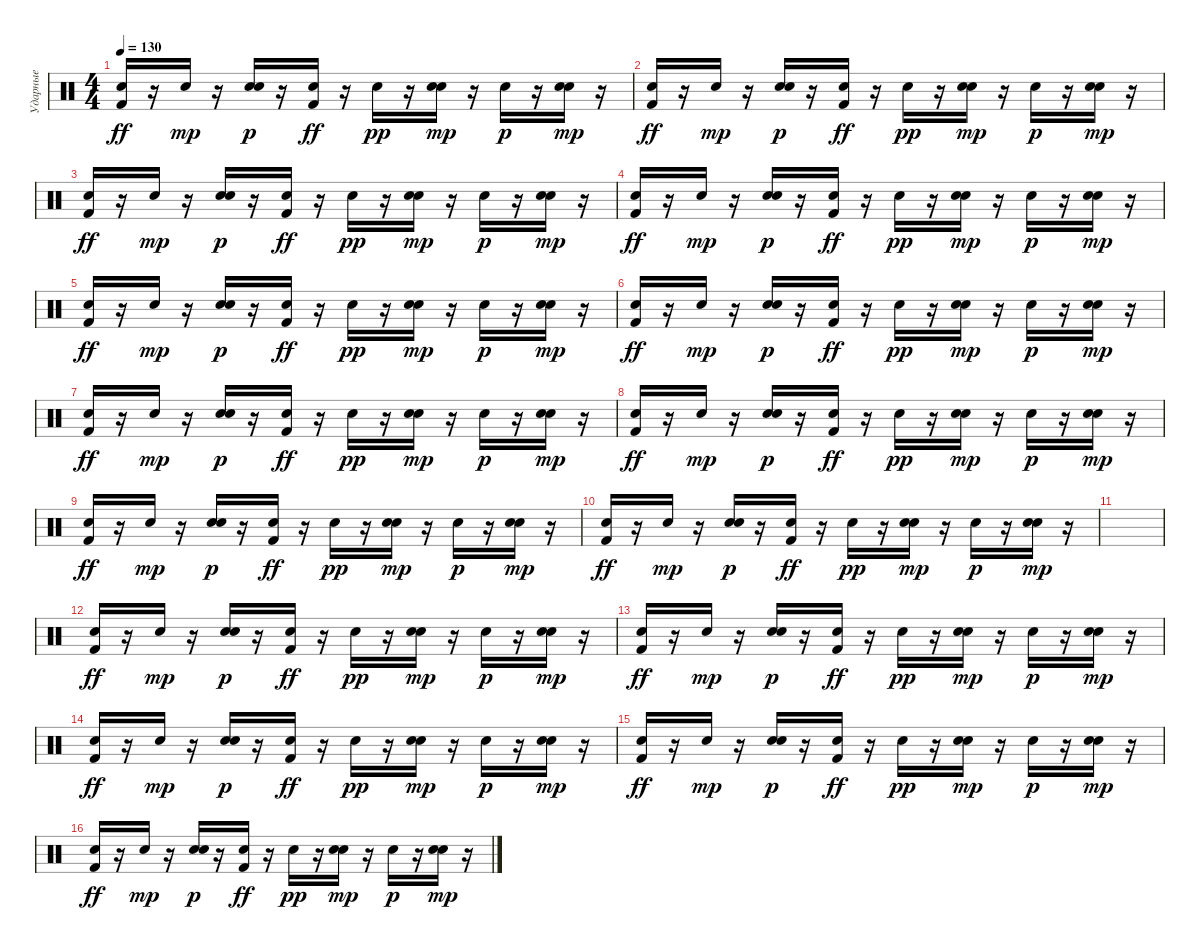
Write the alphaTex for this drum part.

\track ("Ударные" "Ударные") {instrument percussion}
\staff {score}
\articulation defaults
\ts (4 4)
\tempo 130
\clef neutral
\ks c
("Hand Clap (hit)" "Kick (hit) 2").16{dy ff} r.16 "Hand Clap (hit)".16{dy mp} r.16 ("Hand Clap (hit)" "Electric Snare (hit)").16{dy p} r.16 ("Hand Clap (hit)" "Kick (hit) 2").16{dy ff} r.16 "Hand Clap (hit)".16{dy pp} r.16 ("Hand Clap (hit)" "Electric Snare (hit)").16{dy mp} r.16 "Hand Clap (hit)".16{dy p} r.16 ("Hand Clap (hit)" "Electric Snare (hit)").16{dy mp} r.16 |
("Hand Clap (hit)" "Kick (hit) 2").16{dy ff} r.16 "Hand Clap (hit)".16{dy mp} r.16 ("Hand Clap (hit)" "Electric Snare (hit)").16{dy p} r.16 ("Hand Clap (hit)" "Kick (hit) 2").16{dy ff} r.16 "Hand Clap (hit)".16{dy pp} r.16 ("Hand Clap (hit)" "Electric Snare (hit)").16{dy mp} r.16 "Hand Clap (hit)".16{dy p} r.16 ("Hand Clap (hit)" "Electric Snare (hit)").16{dy mp} r.16 |
("Hand Clap (hit)" "Kick (hit) 2").16{dy ff} r.16 "Hand Clap (hit)".16{dy mp} r.16 ("Hand Clap (hit)" "Electric Snare (hit)").16{dy p} r.16 ("Hand Clap (hit)" "Kick (hit) 2").16{dy ff} r.16 "Hand Clap (hit)".16{dy pp} r.16 ("Hand Clap (hit)" "Electric Snare (hit)").16{dy mp} r.16 "Hand Clap (hit)".16{dy p} r.16 ("Hand Clap (hit)" "Electric Snare (hit)").16{dy mp} r.16 |
("Hand Clap (hit)" "Kick (hit) 2").16{dy ff} r.16 "Hand Clap (hit)".16{dy mp} r.16 ("Hand Clap (hit)" "Electric Snare (hit)").16{dy p} r.16 ("Hand Clap (hit)" "Kick (hit) 2").16{dy ff} r.16 "Hand Clap (hit)".16{dy pp} r.16 ("Hand Clap (hit)" "Electric Snare (hit)").16{dy mp} r.16 "Hand Clap (hit)".16{dy p} r.16 ("Hand Clap (hit)" "Electric Snare (hit)").16{dy mp} r.16 |
("Hand Clap (hit)" "Kick (hit) 2").16{dy ff} r.16 "Hand Clap (hit)".16{dy mp} r.16 ("Hand Clap (hit)" "Electric Snare (hit)").16{dy p} r.16 ("Hand Clap (hit)" "Kick (hit) 2").16{dy ff} r.16 "Hand Clap (hit)".16{dy pp} r.16 ("Hand Clap (hit)" "Electric Snare (hit)").16{dy mp} r.16 "Hand Clap (hit)".16{dy p} r.16 ("Hand Clap (hit)" "Electric Snare (hit)").16{dy mp} r.16 |
("Hand Clap (hit)" "Kick (hit) 2").16{dy ff} r.16 "Hand Clap (hit)".16{dy mp} r.16 ("Hand Clap (hit)" "Electric Snare (hit)").16{dy p} r.16 ("Hand Clap (hit)" "Kick (hit) 2").16{dy ff} r.16 "Hand Clap (hit)".16{dy pp} r.16 ("Hand Clap (hit)" "Electric Snare (hit)").16{dy mp} r.16 "Hand Clap (hit)".16{dy p} r.16 ("Hand Clap (hit)" "Electric Snare (hit)").16{dy mp} r.16 |
("Hand Clap (hit)" "Kick (hit) 2").16{dy ff} r.16 "Hand Clap (hit)".16{dy mp} r.16 ("Hand Clap (hit)" "Electric Snare (hit)").16{dy p} r.16 ("Hand Clap (hit)" "Kick (hit) 2").16{dy ff} r.16 "Hand Clap (hit)".16{dy pp} r.16 ("Hand Clap (hit)" "Electric Snare (hit)").16{dy mp} r.16 "Hand Clap (hit)".16{dy p} r.16 ("Hand Clap (hit)" "Electric Snare (hit)").16{dy mp} r.16 |
("Hand Clap (hit)" "Kick (hit) 2").16{dy ff} r.16 "Hand Clap (hit)".16{dy mp} r.16 ("Hand Clap (hit)" "Electric Snare (hit)").16{dy p} r.16 ("Hand Clap (hit)" "Kick (hit) 2").16{dy ff} r.16 "Hand Clap (hit)".16{dy pp} r.16 ("Hand Clap (hit)" "Electric Snare (hit)").16{dy mp} r.16 "Hand Clap (hit)".16{dy p} r.16 ("Hand Clap (hit)" "Electric Snare (hit)").16{dy mp} r.16 |
("Hand Clap (hit)" "Kick (hit) 2").16{dy ff} r.16 "Hand Clap (hit)".16{dy mp} r.16 ("Hand Clap (hit)" "Electric Snare (hit)").16{dy p} r.16 ("Hand Clap (hit)" "Kick (hit) 2").16{dy ff} r.16 "Hand Clap (hit)".16{dy pp} r.16 ("Hand Clap (hit)" "Electric Snare (hit)").16{dy mp} r.16 "Hand Clap (hit)".16{dy p} r.16 ("Hand Clap (hit)" "Electric Snare (hit)").16{dy mp} r.16 |
("Hand Clap (hit)" "Kick (hit) 2").16{dy ff} r.16 "Hand Clap (hit)".16{dy mp} r.16 ("Hand Clap (hit)" "Electric Snare (hit)").16{dy p} r.16 ("Hand Clap (hit)" "Kick (hit) 2").16{dy ff} r.16 "Hand Clap (hit)".16{dy pp} r.16 ("Hand Clap (hit)" "Electric Snare (hit)").16{dy mp} r.16 "Hand Clap (hit)".16{dy p} r.16 ("Hand Clap (hit)" "Electric Snare (hit)").16{dy mp} r.16 |
|
("Hand Clap (hit)" "Kick (hit) 2").16{dy ff} r.16 "Hand Clap (hit)".16{dy mp} r.16 ("Hand Clap (hit)" "Electric Snare (hit)").16{dy p} r.16 ("Hand Clap (hit)" "Kick (hit) 2").16{dy ff} r.16 "Hand Clap (hit)".16{dy pp} r.16 ("Hand Clap (hit)" "Electric Snare (hit)").16{dy mp} r.16 "Hand Clap (hit)".16{dy p} r.16 ("Hand Clap (hit)" "Electric Snare (hit)").16{dy mp} r.16 |
("Hand Clap (hit)" "Kick (hit) 2").16{dy ff} r.16 "Hand Clap (hit)".16{dy mp} r.16 ("Hand Clap (hit)" "Electric Snare (hit)").16{dy p} r.16 ("Hand Clap (hit)" "Kick (hit) 2").16{dy ff} r.16 "Hand Clap (hit)".16{dy pp} r.16 ("Hand Clap (hit)" "Electric Snare (hit)").16{dy mp} r.16 "Hand Clap (hit)".16{dy p} r.16 ("Hand Clap (hit)" "Electric Snare (hit)").16{dy mp} r.16 |
("Hand Clap (hit)" "Kick (hit) 2").16{dy ff} r.16 "Hand Clap (hit)".16{dy mp} r.16 ("Hand Clap (hit)" "Electric Snare (hit)").16{dy p} r.16 ("Hand Clap (hit)" "Kick (hit) 2").16{dy ff} r.16 "Hand Clap (hit)".16{dy pp} r.16 ("Hand Clap (hit)" "Electric Snare (hit)").16{dy mp} r.16 "Hand Clap (hit)".16{dy p} r.16 ("Hand Clap (hit)" "Electric Snare (hit)").16{dy mp} r.16 |
("Hand Clap (hit)" "Kick (hit) 2").16{dy ff} r.16 "Hand Clap (hit)".16{dy mp} r.16 ("Hand Clap (hit)" "Electric Snare (hit)").16{dy p} r.16 ("Hand Clap (hit)" "Kick (hit) 2").16{dy ff} r.16 "Hand Clap (hit)".16{dy pp} r.16 ("Hand Clap (hit)" "Electric Snare (hit)").16{dy mp} r.16 "Hand Clap (hit)".16{dy p} r.16 ("Hand Clap (hit)" "Electric Snare (hit)").16{dy mp} r.16 |
("Hand Clap (hit)" "Kick (hit) 2").16{dy ff} r.16 "Hand Clap (hit)".16{dy mp} r.16 ("Hand Clap (hit)" "Electric Snare (hit)").16{dy p} r.16 ("Hand Clap (hit)" "Kick (hit) 2").16{dy ff} r.16 "Hand Clap (hit)".16{dy pp} r.16 ("Hand Clap (hit)" "Electric Snare (hit)").16{dy mp} r.16 "Hand Clap (hit)".16{dy p} r.16 ("Hand Clap (hit)" "Electric Snare (hit)").16{dy mp} r.16
